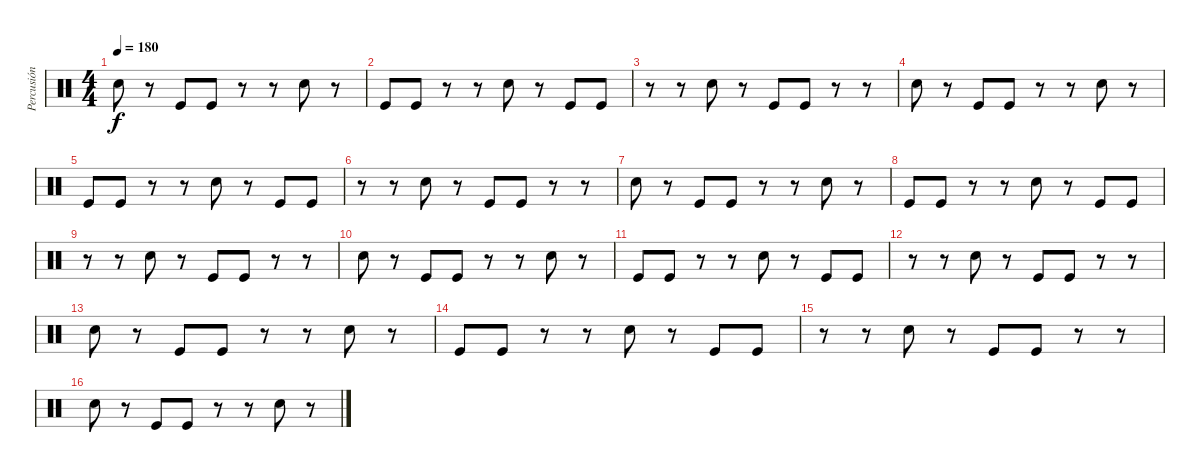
\track ("Percusión" "Percusión") {instrument percussion}
\staff {score}
\articulation defaults
\ts (4 4)
\tempo 180
\clef neutral
\ks c "Snare (hit) 2".8{dy f}
r.8 "Kick (hit)".8 "Kick (hit)".8 r.8 r.8 "Snare (hit) 2".8 r.8 |
"Kick (hit)".8 "Kick (hit)".8 r.8 r.8 "Snare (hit) 2".8 r.8 "Kick (hit)".8 "Kick (hit)".8 |
r.8 r.8 "Snare (hit) 2".8 r.8 "Kick (hit)".8 "Kick (hit)".8 r.8 r.8 |
"Snare (hit) 2".8 r.8 "Kick (hit)".8 "Kick (hit)".8 r.8 r.8 "Snare (hit) 2".8 r.8 |
"Kick (hit)".8 "Kick (hit)".8 r.8 r.8 "Snare (hit) 2".8 r.8 "Kick (hit)".8 "Kick (hit)".8 |
r.8 r.8 "Snare (hit) 2".8 r.8 "Kick (hit)".8 "Kick (hit)".8 r.8 r.8 |
"Snare (hit) 2".8 r.8 "Kick (hit)".8 "Kick (hit)".8 r.8 r.8 "Snare (hit) 2".8 r.8 |
"Kick (hit)".8 "Kick (hit)".8 r.8 r.8 "Snare (hit) 2".8 r.8 "Kick (hit)".8 "Kick (hit)".8 |
r.8 r.8 "Snare (hit) 2".8 r.8 "Kick (hit)".8 "Kick (hit)".8 r.8 r.8 |
"Snare (hit) 2".8 r.8 "Kick (hit)".8 "Kick (hit)".8 r.8 r.8 "Snare (hit) 2".8 r.8 |
"Kick (hit)".8 "Kick (hit)".8 r.8 r.8 "Snare (hit) 2".8 r.8 "Kick (hit)".8 "Kick (hit)".8 |
r.8 r.8 "Snare (hit) 2".8 r.8 "Kick (hit)".8 "Kick (hit)".8 r.8 r.8 |
"Snare (hit) 2".8 r.8 "Kick (hit)".8 "Kick (hit)".8 r.8 r.8 "Snare (hit) 2".8 r.8 |
"Kick (hit)".8 "Kick (hit)".8 r.8 r.8 "Snare (hit) 2".8 r.8 "Kick (hit)".8 "Kick (hit)".8 |
r.8 r.8 "Snare (hit) 2".8 r.8 "Kick (hit)".8 "Kick (hit)".8 r.8 r.8 |
"Snare (hit) 2".8 r.8 "Kick (hit)".8 "Kick (hit)".8 r.8 r.8 "Snare (hit) 2".8 r.8
